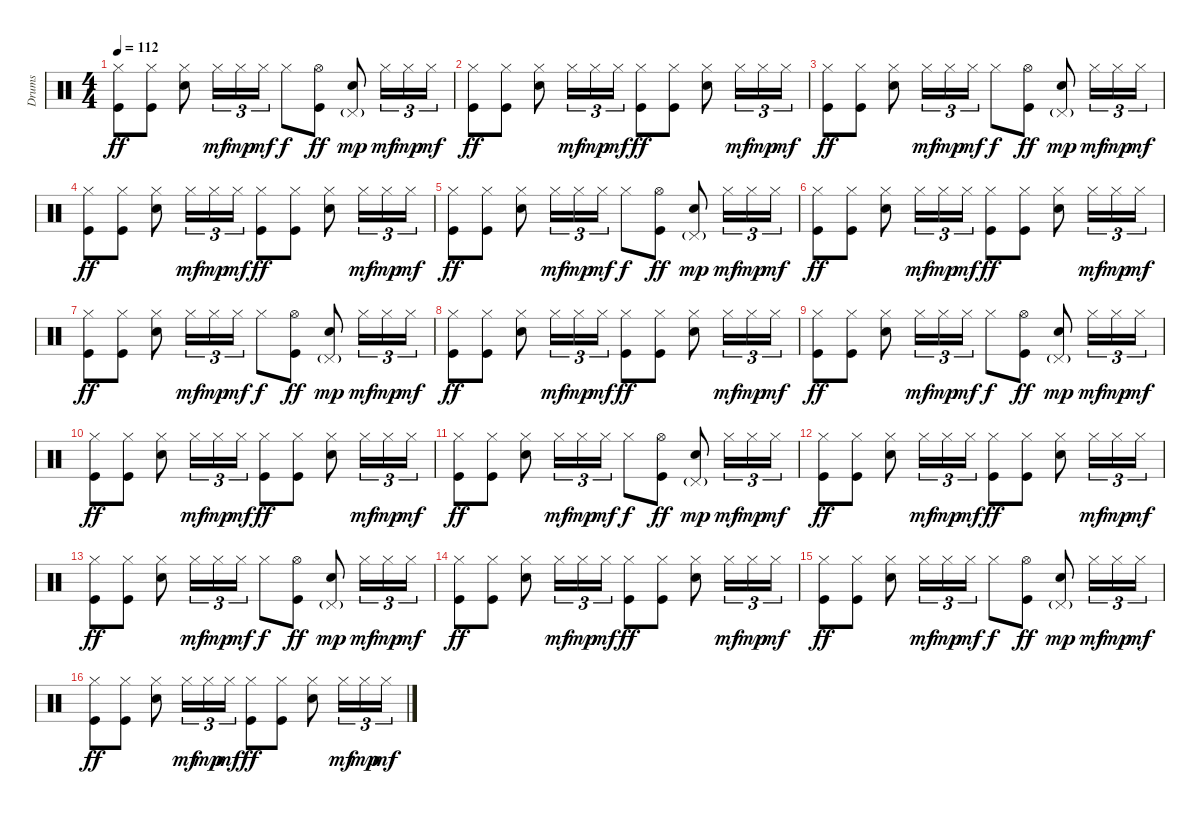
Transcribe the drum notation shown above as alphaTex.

\track ("Drums" "Drums") {instrument percussion}
\staff {score}
\articulation defaults
\ts (4 4)
\tempo 112
\clef neutral
\ks c
("Hi-Hat (closed)" "Kick (hit)").8{dy ff} ("Hi-Hat (closed)" "Kick (hit)").8 ("Hi-Hat (closed)" "Electric Snare (hit)").8 "Hi-Hat (closed)".16{tu (3 2) dy mf} "Hi-Hat (closed)".16{tu (3 2) dy mp} "Hi-Hat (closed)".16{tu (3 2) dy mf} "Hi-Hat (closed)".8{dy f} ("Hi-Hat (open)" "Kick (hit)").8{dy ff} ("Pedal Hi-Hat (hit)"{g} "Electric Snare (hit)").8{dy mp} "Hi-Hat (closed)".16{tu (3 2) dy mf} "Hi-Hat (closed)".16{tu (3 2) dy mp} "Hi-Hat (closed)".16{tu (3 2) dy mf} |
("Hi-Hat (closed)" "Kick (hit)").8{dy ff} ("Hi-Hat (closed)" "Kick (hit)").8 ("Hi-Hat (closed)" "Electric Snare (hit)").8 "Hi-Hat (closed)".16{tu (3 2) dy mf} "Hi-Hat (closed)".16{tu (3 2) dy mp} "Hi-Hat (closed)".16{tu (3 2) dy mf} ("Hi-Hat (closed)" "Kick (hit)").8{dy ff} ("Hi-Hat (closed)" "Kick (hit)").8 ("Hi-Hat (closed)" "Electric Snare (hit)").8 "Hi-Hat (closed)".16{tu (3 2) dy mf} "Hi-Hat (closed)".16{tu (3 2) dy mp} "Hi-Hat (closed)".16{tu (3 2) dy mf} |
("Hi-Hat (closed)" "Kick (hit)").8{dy ff} ("Hi-Hat (closed)" "Kick (hit)").8 ("Hi-Hat (closed)" "Electric Snare (hit)").8 "Hi-Hat (closed)".16{tu (3 2) dy mf} "Hi-Hat (closed)".16{tu (3 2) dy mp} "Hi-Hat (closed)".16{tu (3 2) dy mf} "Hi-Hat (closed)".8{dy f} ("Hi-Hat (open)" "Kick (hit)").8{dy ff} ("Pedal Hi-Hat (hit)"{g} "Electric Snare (hit)").8{dy mp} "Hi-Hat (closed)".16{tu (3 2) dy mf} "Hi-Hat (closed)".16{tu (3 2) dy mp} "Hi-Hat (closed)".16{tu (3 2) dy mf} |
("Hi-Hat (closed)" "Kick (hit)").8{dy ff} ("Hi-Hat (closed)" "Kick (hit)").8 ("Hi-Hat (closed)" "Electric Snare (hit)").8 "Hi-Hat (closed)".16{tu (3 2) dy mf} "Hi-Hat (closed)".16{tu (3 2) dy mp} "Hi-Hat (closed)".16{tu (3 2) dy mf} ("Hi-Hat (closed)" "Kick (hit)").8{dy ff} ("Hi-Hat (closed)" "Kick (hit)").8 ("Hi-Hat (closed)" "Electric Snare (hit)").8 "Hi-Hat (closed)".16{tu (3 2) dy mf} "Hi-Hat (closed)".16{tu (3 2) dy mp} "Hi-Hat (closed)".16{tu (3 2) dy mf} |
("Hi-Hat (closed)" "Kick (hit)").8{dy ff} ("Hi-Hat (closed)" "Kick (hit)").8 ("Hi-Hat (closed)" "Electric Snare (hit)").8 "Hi-Hat (closed)".16{tu (3 2) dy mf} "Hi-Hat (closed)".16{tu (3 2) dy mp} "Hi-Hat (closed)".16{tu (3 2) dy mf} "Hi-Hat (closed)".8{dy f} ("Hi-Hat (open)" "Kick (hit)").8{dy ff} ("Pedal Hi-Hat (hit)"{g} "Electric Snare (hit)").8{dy mp} "Hi-Hat (closed)".16{tu (3 2) dy mf} "Hi-Hat (closed)".16{tu (3 2) dy mp} "Hi-Hat (closed)".16{tu (3 2) dy mf} |
("Hi-Hat (closed)" "Kick (hit)").8{dy ff} ("Hi-Hat (closed)" "Kick (hit)").8 ("Hi-Hat (closed)" "Electric Snare (hit)").8 "Hi-Hat (closed)".16{tu (3 2) dy mf} "Hi-Hat (closed)".16{tu (3 2) dy mp} "Hi-Hat (closed)".16{tu (3 2) dy mf} ("Hi-Hat (closed)" "Kick (hit)").8{dy ff} ("Hi-Hat (closed)" "Kick (hit)").8 ("Hi-Hat (closed)" "Electric Snare (hit)").8 "Hi-Hat (closed)".16{tu (3 2) dy mf} "Hi-Hat (closed)".16{tu (3 2) dy mp} "Hi-Hat (closed)".16{tu (3 2) dy mf} |
("Hi-Hat (closed)" "Kick (hit)").8{dy ff} ("Hi-Hat (closed)" "Kick (hit)").8 ("Hi-Hat (closed)" "Electric Snare (hit)").8 "Hi-Hat (closed)".16{tu (3 2) dy mf} "Hi-Hat (closed)".16{tu (3 2) dy mp} "Hi-Hat (closed)".16{tu (3 2) dy mf} "Hi-Hat (closed)".8{dy f} ("Hi-Hat (open)" "Kick (hit)").8{dy ff} ("Pedal Hi-Hat (hit)"{g} "Electric Snare (hit)").8{dy mp} "Hi-Hat (closed)".16{tu (3 2) dy mf} "Hi-Hat (closed)".16{tu (3 2) dy mp} "Hi-Hat (closed)".16{tu (3 2) dy mf} |
("Hi-Hat (closed)" "Kick (hit)").8{dy ff} ("Hi-Hat (closed)" "Kick (hit)").8 ("Hi-Hat (closed)" "Electric Snare (hit)").8 "Hi-Hat (closed)".16{tu (3 2) dy mf} "Hi-Hat (closed)".16{tu (3 2) dy mp} "Hi-Hat (closed)".16{tu (3 2) dy mf} ("Hi-Hat (closed)" "Kick (hit)").8{dy ff} ("Hi-Hat (closed)" "Kick (hit)").8 ("Hi-Hat (closed)" "Electric Snare (hit)").8 "Hi-Hat (closed)".16{tu (3 2) dy mf} "Hi-Hat (closed)".16{tu (3 2) dy mp} "Hi-Hat (closed)".16{tu (3 2) dy mf} |
("Hi-Hat (closed)" "Kick (hit)").8{dy ff} ("Hi-Hat (closed)" "Kick (hit)").8 ("Hi-Hat (closed)" "Electric Snare (hit)").8 "Hi-Hat (closed)".16{tu (3 2) dy mf} "Hi-Hat (closed)".16{tu (3 2) dy mp} "Hi-Hat (closed)".16{tu (3 2) dy mf} "Hi-Hat (closed)".8{dy f} ("Hi-Hat (open)" "Kick (hit)").8{dy ff} ("Pedal Hi-Hat (hit)"{g} "Electric Snare (hit)").8{dy mp} "Hi-Hat (closed)".16{tu (3 2) dy mf} "Hi-Hat (closed)".16{tu (3 2) dy mp} "Hi-Hat (closed)".16{tu (3 2) dy mf} |
("Hi-Hat (closed)" "Kick (hit)").8{dy ff} ("Hi-Hat (closed)" "Kick (hit)").8 ("Hi-Hat (closed)" "Electric Snare (hit)").8 "Hi-Hat (closed)".16{tu (3 2) dy mf} "Hi-Hat (closed)".16{tu (3 2) dy mp} "Hi-Hat (closed)".16{tu (3 2) dy mf} ("Hi-Hat (closed)" "Kick (hit)").8{dy ff} ("Hi-Hat (closed)" "Kick (hit)").8 ("Hi-Hat (closed)" "Electric Snare (hit)").8 "Hi-Hat (closed)".16{tu (3 2) dy mf} "Hi-Hat (closed)".16{tu (3 2) dy mp} "Hi-Hat (closed)".16{tu (3 2) dy mf} |
("Hi-Hat (closed)" "Kick (hit)").8{dy ff} ("Hi-Hat (closed)" "Kick (hit)").8 ("Hi-Hat (closed)" "Electric Snare (hit)").8 "Hi-Hat (closed)".16{tu (3 2) dy mf} "Hi-Hat (closed)".16{tu (3 2) dy mp} "Hi-Hat (closed)".16{tu (3 2) dy mf} "Hi-Hat (closed)".8{dy f} ("Hi-Hat (open)" "Kick (hit)").8{dy ff} ("Pedal Hi-Hat (hit)"{g} "Electric Snare (hit)").8{dy mp} "Hi-Hat (closed)".16{tu (3 2) dy mf} "Hi-Hat (closed)".16{tu (3 2) dy mp} "Hi-Hat (closed)".16{tu (3 2) dy mf} |
("Hi-Hat (closed)" "Kick (hit)").8{dy ff} ("Hi-Hat (closed)" "Kick (hit)").8 ("Hi-Hat (closed)" "Electric Snare (hit)").8 "Hi-Hat (closed)".16{tu (3 2) dy mf} "Hi-Hat (closed)".16{tu (3 2) dy mp} "Hi-Hat (closed)".16{tu (3 2) dy mf} ("Hi-Hat (closed)" "Kick (hit)").8{dy ff} ("Hi-Hat (closed)" "Kick (hit)").8 ("Hi-Hat (closed)" "Electric Snare (hit)").8 "Hi-Hat (closed)".16{tu (3 2) dy mf} "Hi-Hat (closed)".16{tu (3 2) dy mp} "Hi-Hat (closed)".16{tu (3 2) dy mf} |
("Hi-Hat (closed)" "Kick (hit)").8{dy ff} ("Hi-Hat (closed)" "Kick (hit)").8 ("Hi-Hat (closed)" "Electric Snare (hit)").8 "Hi-Hat (closed)".16{tu (3 2) dy mf} "Hi-Hat (closed)".16{tu (3 2) dy mp} "Hi-Hat (closed)".16{tu (3 2) dy mf} "Hi-Hat (closed)".8{dy f} ("Hi-Hat (open)" "Kick (hit)").8{dy ff} ("Pedal Hi-Hat (hit)"{g} "Electric Snare (hit)").8{dy mp} "Hi-Hat (closed)".16{tu (3 2) dy mf} "Hi-Hat (closed)".16{tu (3 2) dy mp} "Hi-Hat (closed)".16{tu (3 2) dy mf} |
("Hi-Hat (closed)" "Kick (hit)").8{dy ff} ("Hi-Hat (closed)" "Kick (hit)").8 ("Hi-Hat (closed)" "Electric Snare (hit)").8 "Hi-Hat (closed)".16{tu (3 2) dy mf} "Hi-Hat (closed)".16{tu (3 2) dy mp} "Hi-Hat (closed)".16{tu (3 2) dy mf} ("Hi-Hat (closed)" "Kick (hit)").8{dy ff} ("Hi-Hat (closed)" "Kick (hit)").8 ("Hi-Hat (closed)" "Electric Snare (hit)").8 "Hi-Hat (closed)".16{tu (3 2) dy mf} "Hi-Hat (closed)".16{tu (3 2) dy mp} "Hi-Hat (closed)".16{tu (3 2) dy mf} |
("Hi-Hat (closed)" "Kick (hit)").8{dy ff} ("Hi-Hat (closed)" "Kick (hit)").8 ("Hi-Hat (closed)" "Electric Snare (hit)").8 "Hi-Hat (closed)".16{tu (3 2) dy mf} "Hi-Hat (closed)".16{tu (3 2) dy mp} "Hi-Hat (closed)".16{tu (3 2) dy mf} "Hi-Hat (closed)".8{dy f} ("Hi-Hat (open)" "Kick (hit)").8{dy ff} ("Pedal Hi-Hat (hit)"{g} "Electric Snare (hit)").8{dy mp} "Hi-Hat (closed)".16{tu (3 2) dy mf} "Hi-Hat (closed)".16{tu (3 2) dy mp} "Hi-Hat (closed)".16{tu (3 2) dy mf} |
("Hi-Hat (closed)" "Kick (hit)").8{dy ff} ("Hi-Hat (closed)" "Kick (hit)").8 ("Hi-Hat (closed)" "Electric Snare (hit)").8 "Hi-Hat (closed)".16{tu (3 2) dy mf} "Hi-Hat (closed)".16{tu (3 2) dy mp} "Hi-Hat (closed)".16{tu (3 2) dy mf} ("Hi-Hat (closed)" "Kick (hit)").8{dy ff} ("Hi-Hat (closed)" "Kick (hit)").8 ("Hi-Hat (closed)" "Electric Snare (hit)").8 "Hi-Hat (closed)".16{tu (3 2) dy mf} "Hi-Hat (closed)".16{tu (3 2) dy mp} "Hi-Hat (closed)".16{tu (3 2) dy mf}
